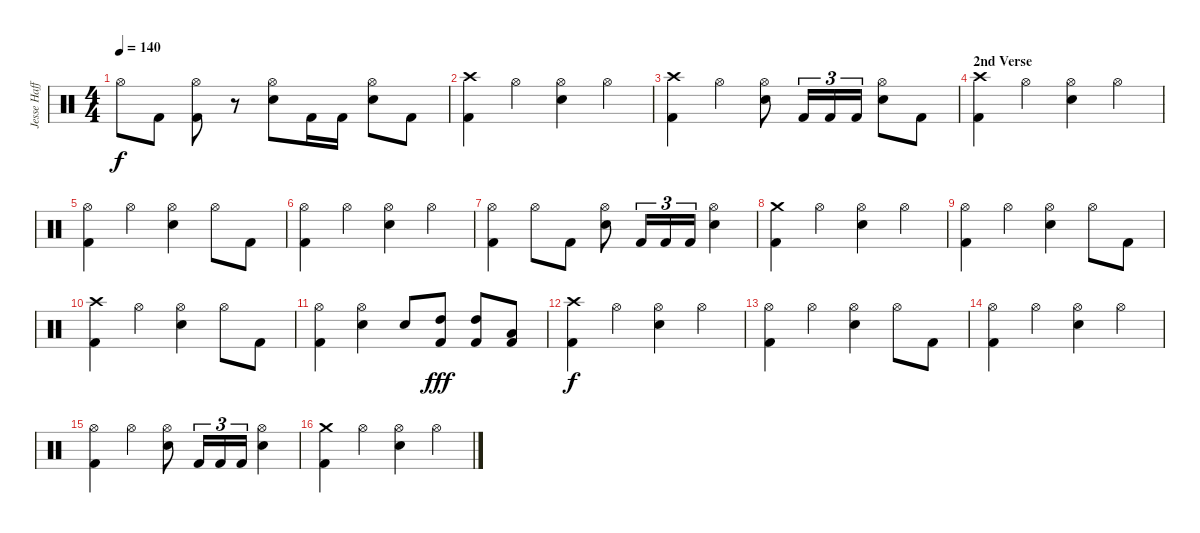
\track ("Jesse Haff" "Jesse Haff") {instrument percussion}
\staff {score}
\articulation defaults
\ts (4 4)
\tempo 140
\clef neutral
\ks c "Hi-Hat (open)".8{dy f} "Kick (hit) 2".8
("Hi-Hat (open)" "Kick (hit) 2").8 r.8 ("Hi-Hat (open)" "Electric Snare (hit)").8 "Kick (hit) 2".16 "Kick (hit) 2".16 ("Hi-Hat (open)" "Electric Snare (hit)").8 "Kick (hit) 2".8 |
("Crash high (hit)" "Kick (hit) 2").4 "Hi-Hat (open)".4 ("Hi-Hat (open)" "Electric Snare (hit)").4 "Hi-Hat (open)".4 |
("Crash high (hit)" "Kick (hit) 2").4 "Hi-Hat (open)".4 ("Hi-Hat (open)" "Electric Snare (hit)").8 "Kick (hit) 2".16{tu (3 2)} "Kick (hit) 2".16{tu (3 2)} "Kick (hit) 2".16{tu (3 2)} ("Hi-Hat (open)" "Electric Snare (hit)").8 "Kick (hit) 2".8 |
\section ("" "2nd Verse ")
("Crash high (hit)" "Kick (hit) 2").4 "Hi-Hat (open)".4 ("Hi-Hat (open)" "Electric Snare (hit)").4 "Hi-Hat (open)".4 |
("Hi-Hat (open)" "Kick (hit) 2").4 "Hi-Hat (open)".4 ("Hi-Hat (open)" "Electric Snare (hit)").4 "Hi-Hat (open)".8 "Kick (hit) 2".8 |
("Hi-Hat (open)" "Kick (hit) 2").4 "Hi-Hat (open)".4 ("Hi-Hat (open)" "Electric Snare (hit)").4 "Hi-Hat (open)".4 |
("Hi-Hat (open)" "Kick (hit) 2").4 "Hi-Hat (open)".8 "Kick (hit) 2".8 ("Hi-Hat (open)" "Electric Snare (hit)").8 "Kick (hit) 2".16{tu (3 2)} "Kick (hit) 2".16{tu (3 2)} "Kick (hit) 2".16{tu (3 2)} ("Hi-Hat (open)" "Electric Snare (hit)").4 |
("Crash medium (hit)" "Kick (hit) 2").4 "Hi-Hat (open)".4 ("Hi-Hat (open)" "Electric Snare (hit)").4 "Hi-Hat (open)".4 |
("Hi-Hat (open)" "Kick (hit) 2").4 "Hi-Hat (open)".4 ("Hi-Hat (open)" "Electric Snare (hit)").4 "Hi-Hat (open)".8 "Kick (hit) 2".8 |
("Crash high (hit)" "Kick (hit) 2").4 "Hi-Hat (open)".4 ("Hi-Hat (open)" "Electric Snare (hit)").4 "Hi-Hat (open)".8 "Kick (hit) 2".8 |
("Hi-Hat (open)" "Kick (hit) 2").4 ("Hi-Hat (open)" "Electric Snare (hit)").4 "Electric Snare (hit)".8 ("High Tom (hit)" "Kick (hit) 2").8{dy fff} ("High Tom (hit)" "Kick (hit) 2").8 ("Low Tom (hit)" "Kick (hit) 2").8 |
("Crash high (hit)" "Kick (hit) 2").4{dy f} "Hi-Hat (open)".4 ("Hi-Hat (open)" "Electric Snare (hit)").4 "Hi-Hat (open)".4 |
("Hi-Hat (open)" "Kick (hit) 2").4 "Hi-Hat (open)".4 ("Hi-Hat (open)" "Electric Snare (hit)").4 "Hi-Hat (open)".8 "Kick (hit) 2".8 |
("Hi-Hat (open)" "Kick (hit) 2").4 "Hi-Hat (open)".4 ("Hi-Hat (open)" "Electric Snare (hit)").4 "Hi-Hat (open)".4 |
("Hi-Hat (open)" "Kick (hit) 2").4 "Hi-Hat (open)".4 ("Hi-Hat (open)" "Electric Snare (hit)").8 "Kick (hit) 2".16{tu (3 2)} "Kick (hit) 2".16{tu (3 2)} "Kick (hit) 2".16{tu (3 2)} ("Hi-Hat (open)" "Electric Snare (hit)").4 |
("Crash medium (hit)" "Kick (hit) 2").4 "Hi-Hat (open)".4 ("Hi-Hat (open)" "Electric Snare (hit)").4 "Hi-Hat (open)".4
